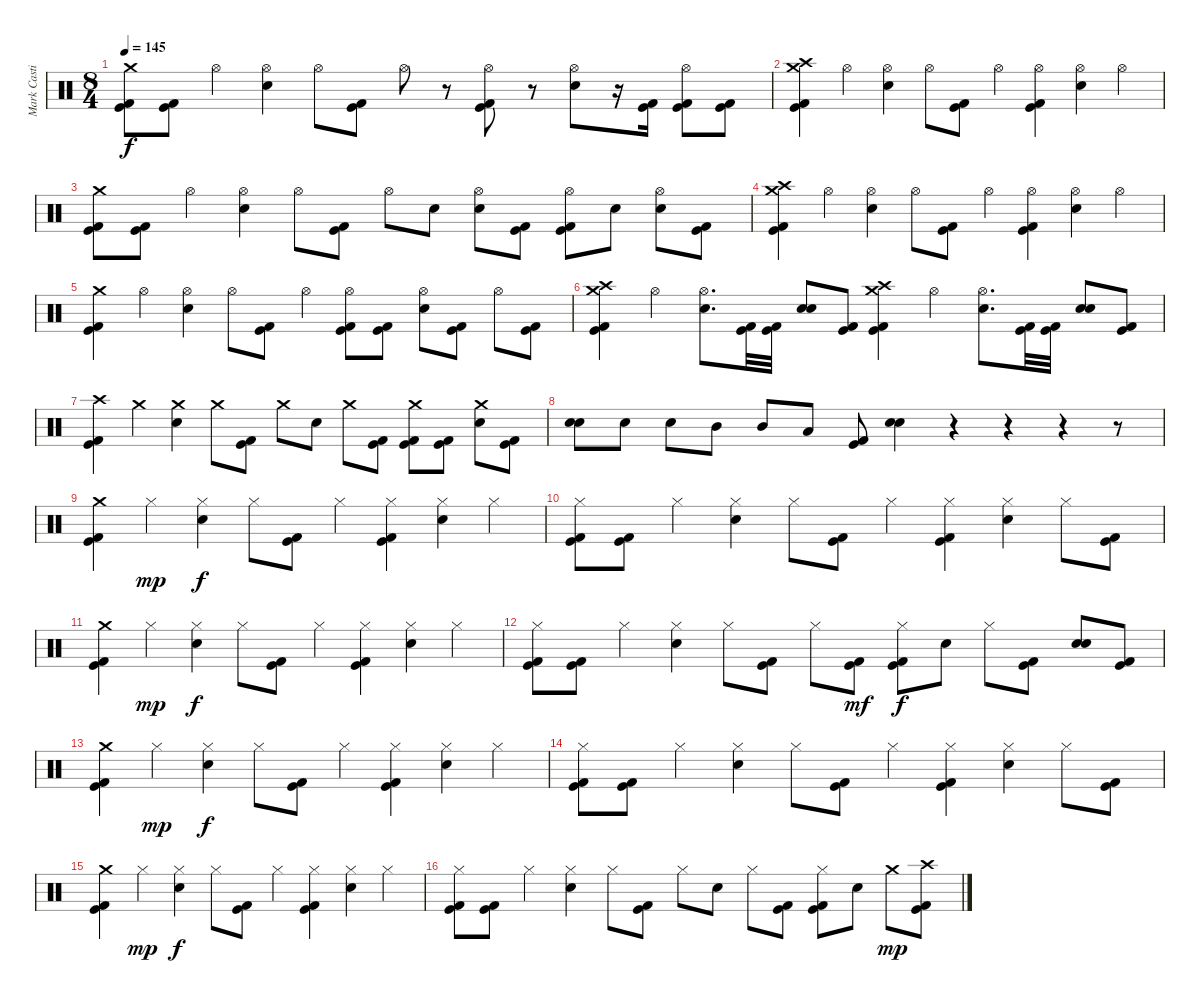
\track ("Mark Castillo" "Mark Casti") {instrument percussion}
\staff {score}
\articulation defaults
\ts (8 4)
\tempo 145
\clef neutral
\ks c
("Crash medium (hit)" "Kick (hit)" "Kick (hit) 2").8{dy f} ("Kick (hit)" "Kick (hit) 2").8 "Hi-Hat (open)".4 ("Hi-Hat (open)" "Electric Snare (hit)").4 "Hi-Hat (open)".8 ("Kick (hit)" "Kick (hit) 2").8 "Hi-Hat (open)".8 r.8 ("Hi-Hat (open)" "Kick (hit)" "Kick (hit) 2").8 r.8 ("Hi-Hat (open)" "Electric Snare (hit)").8 r.16 ("Kick (hit)" "Kick (hit) 2").16 ("Hi-Hat (open)" "Kick (hit)" "Kick (hit) 2").8 ("Kick (hit)" "Kick (hit) 2").8 |
("Crash medium (hit)" "Crash high (hit)" "Kick (hit)" "Kick (hit) 2").4 "Hi-Hat (open)".4 ("Hi-Hat (open)" "Electric Snare (hit)").4 "Hi-Hat (open)".8 ("Kick (hit)" "Kick (hit) 2").8 "Hi-Hat (open)".4 ("Hi-Hat (open)" "Kick (hit)" "Kick (hit) 2").4 ("Hi-Hat (open)" "Electric Snare (hit)").4 "Hi-Hat (open)".4 |
("Crash medium (hit)" "Kick (hit)" "Kick (hit) 2").8 ("Kick (hit)" "Kick (hit) 2").8 "Hi-Hat (open)".4 ("Hi-Hat (open)" "Electric Snare (hit)").4 "Hi-Hat (open)".8 ("Kick (hit)" "Kick (hit) 2").8 "Hi-Hat (open)".8 "Electric Snare (hit)".8 ("Hi-Hat (open)" "Electric Snare (hit)").8 ("Kick (hit)" "Kick (hit) 2").8 ("Hi-Hat (open)" "Kick (hit)" "Kick (hit) 2").8 "Electric Snare (hit)".8 ("Hi-Hat (open)" "Electric Snare (hit)").8 ("Kick (hit)" "Kick (hit) 2").8 |
("Crash medium (hit)" "Crash high (hit)" "Kick (hit)" "Kick (hit) 2").4 "Hi-Hat (open)".4 ("Hi-Hat (open)" "Electric Snare (hit)").4 "Hi-Hat (open)".8 ("Kick (hit)" "Kick (hit) 2").8 "Hi-Hat (open)".4 ("Hi-Hat (open)" "Kick (hit)" "Kick (hit) 2").4 ("Hi-Hat (open)" "Electric Snare (hit)").4 "Hi-Hat (open)".4 |
("Crash medium (hit)" "Kick (hit)" "Kick (hit) 2").4 "Hi-Hat (open)".4 ("Hi-Hat (open)" "Electric Snare (hit)").4 "Hi-Hat (open)".8 ("Kick (hit)" "Kick (hit) 2").8 "Hi-Hat (open)".4 ("Hi-Hat (open)" "Kick (hit)" "Kick (hit) 2").8 ("Kick (hit)" "Kick (hit) 2").8 ("Hi-Hat (open)" "Electric Snare (hit)").8 ("Kick (hit)" "Kick (hit) 2").8 "Hi-Hat (open)".8 ("Kick (hit)" "Kick (hit) 2").8 |
("Crash medium (hit)" "Crash high (hit)" "Kick (hit)" "Kick (hit) 2").4 "Hi-Hat (open)".4 ("Hi-Hat (open)" "Electric Snare (hit)").8{d} ("Kick (hit)" "Kick (hit) 2").32 ("Kick (hit)" "Kick (hit) 2").32 ("Electric Snare (hit)" "Electric Snare (hit)").8{bu 240} ("Kick (hit)" "Kick (hit) 2").8 ("Crash medium (hit)" "Crash high (hit)" "Kick (hit)" "Kick (hit) 2").4 "Hi-Hat (open)".4 ("Hi-Hat (open)" "Electric Snare (hit)").8{d} ("Kick (hit)" "Kick (hit) 2").32 ("Kick (hit)" "Kick (hit) 2").32 ("Electric Snare (hit)" "Electric Snare (hit)").8{bu 240} ("Kick (hit)" "Kick (hit) 2").8 |
("Crash high (hit)" "Kick (hit)" "Kick (hit) 2").4 "Crash medium (hit)".4 ("Crash medium (hit)" "Electric Snare (hit)").4 "Crash medium (hit)".8 ("Kick (hit)" "Kick (hit) 2").8 "Crash medium (hit)".8 "Electric Snare (hit)".8 "Crash medium (hit)".8 ("Kick (hit)" "Kick (hit) 2").8 ("Crash medium (hit)" "Kick (hit)" "Kick (hit) 2").8 ("Kick (hit)" "Kick (hit) 2").8 ("Crash medium (hit)" "Electric Snare (hit)").8 ("Kick (hit)" "Kick (hit) 2").8 |
("Electric Snare (hit)" "Electric Snare (hit)").8{bu 480} "Electric Snare (hit)".8 "Electric Snare (hit)".8 "Mid Tom (hit)".8 "Mid Tom (hit)".8 "Low Tom (hit)".8 ("Kick (hit)" "Kick (hit) 2").8 ("Electric Snare (hit)" "Electric Snare (hit)").4{bu 240} r.4 r.4 r.4 r.8 |
("Crash medium (hit)" "Kick (hit)" "Kick (hit) 2").4 "Hi-Hat (closed)".4{dy mp} ("Hi-Hat (closed)" "Electric Snare (hit)").4{dy f} "Hi-Hat (closed)".8 ("Kick (hit)" "Kick (hit) 2").8 "Hi-Hat (closed)".4 ("Hi-Hat (closed)" "Kick (hit)" "Kick (hit) 2").4 ("Hi-Hat (closed)" "Electric Snare (hit)").4 "Hi-Hat (closed)".4 |
("Hi-Hat (closed)" "Kick (hit)" "Kick (hit) 2").8 ("Kick (hit)" "Kick (hit) 2").8 "Hi-Hat (closed)".4 ("Hi-Hat (closed)" "Electric Snare (hit)").4 "Hi-Hat (closed)".8 ("Kick (hit)" "Kick (hit) 2").8 "Hi-Hat (closed)".4 ("Hi-Hat (closed)" "Kick (hit)" "Kick (hit) 2").4 ("Hi-Hat (closed)" "Electric Snare (hit)").4 "Hi-Hat (closed)".8 ("Kick (hit)" "Kick (hit) 2").8 |
("Crash medium (hit)" "Kick (hit)" "Kick (hit) 2").4 "Hi-Hat (closed)".4{dy mp} ("Hi-Hat (closed)" "Electric Snare (hit)").4{dy f} "Hi-Hat (closed)".8 ("Kick (hit)" "Kick (hit) 2").8 "Hi-Hat (closed)".4 ("Hi-Hat (closed)" "Kick (hit)" "Kick (hit) 2").4 ("Hi-Hat (closed)" "Electric Snare (hit)").4 "Hi-Hat (closed)".4 |
("Hi-Hat (closed)" "Kick (hit)" "Kick (hit) 2").8 ("Kick (hit)" "Kick (hit) 2").8 "Hi-Hat (closed)".4 ("Hi-Hat (closed)" "Electric Snare (hit)").4 "Hi-Hat (closed)".8 ("Kick (hit)" "Kick (hit) 2").8 "Hi-Hat (closed)".8 ("Kick (hit)" "Kick (hit) 2").8{dy mf} ("Hi-Hat (closed)" "Kick (hit)" "Kick (hit) 2").8{dy f} "Electric Snare (hit)".8 "Hi-Hat (closed)".8 ("Kick (hit)" "Kick (hit) 2").8 ("Electric Snare (hit)" "Electric Snare (hit)").8{bu 240} ("Kick (hit)" "Kick (hit) 2").8 |
("Crash medium (hit)" "Kick (hit)" "Kick (hit) 2").4 "Hi-Hat (closed)".4{dy mp} ("Hi-Hat (closed)" "Electric Snare (hit)").4{dy f} "Hi-Hat (closed)".8 ("Kick (hit)" "Kick (hit) 2").8 "Hi-Hat (closed)".4 ("Hi-Hat (closed)" "Kick (hit)" "Kick (hit) 2").4 ("Hi-Hat (closed)" "Electric Snare (hit)").4 "Hi-Hat (closed)".4 |
("Hi-Hat (closed)" "Kick (hit)" "Kick (hit) 2").8 ("Kick (hit)" "Kick (hit) 2").8 "Hi-Hat (closed)".4 ("Hi-Hat (closed)" "Electric Snare (hit)").4 "Hi-Hat (closed)".8 ("Kick (hit)" "Kick (hit) 2").8 "Hi-Hat (closed)".4 ("Hi-Hat (closed)" "Kick (hit)" "Kick (hit) 2").4 ("Hi-Hat (closed)" "Electric Snare (hit)").4 "Hi-Hat (closed)".8 ("Kick (hit)" "Kick (hit) 2").8 |
("Crash medium (hit)" "Kick (hit)" "Kick (hit) 2").4 "Hi-Hat (closed)".4{dy mp} ("Hi-Hat (closed)" "Electric Snare (hit)").4{dy f} "Hi-Hat (closed)".8 ("Kick (hit)" "Kick (hit) 2").8 "Hi-Hat (closed)".4 ("Hi-Hat (closed)" "Kick (hit)" "Kick (hit) 2").4 ("Hi-Hat (closed)" "Electric Snare (hit)").4 "Hi-Hat (closed)".4 |
("Hi-Hat (closed)" "Kick (hit)" "Kick (hit) 2").8 ("Kick (hit)" "Kick (hit) 2").8 "Hi-Hat (closed)".4 ("Hi-Hat (closed)" "Electric Snare (hit)").4 "Hi-Hat (closed)".8 ("Kick (hit)" "Kick (hit) 2").8 "Hi-Hat (closed)".8 "Electric Snare (hit)".8 "Hi-Hat (closed)".8 ("Kick (hit)" "Kick (hit) 2").8 ("Hi-Hat (closed)" "Kick (hit)" "Kick (hit) 2").8 "Electric Snare (hit)".8 "Crash medium (hit)".8{dy mp} ("Crash high (hit)" "Kick (hit)" "Kick (hit) 2").8
